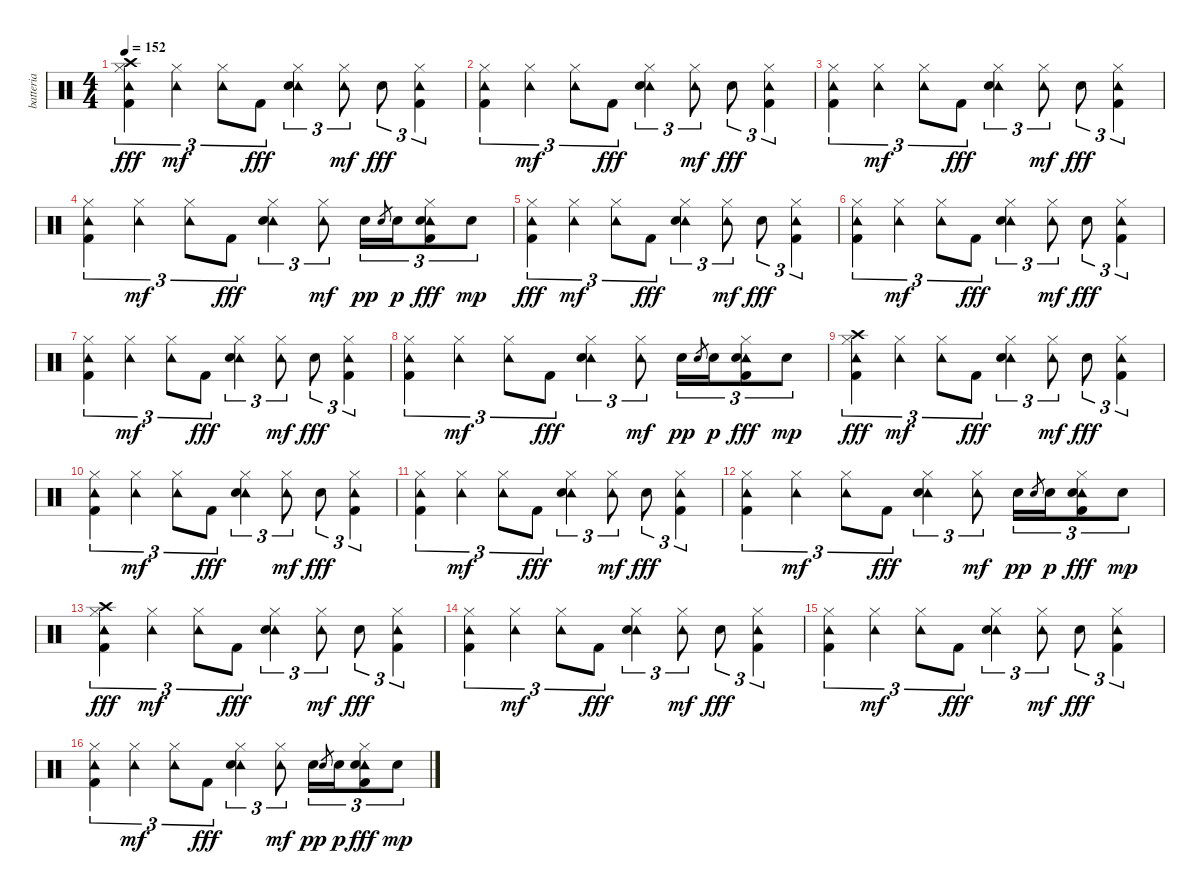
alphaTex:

\track ("batteria" "batteria") {instrument percussion}
\staff {score}
\articulation defaults
\ts (4 4)
\tempo 152
\clef neutral
\ks c
("Hi-Hat (closed)" "Tambourine (hit)" "Crash high (hit)" "Kick (hit) 2").4{tu (3 2) dy fff} ("Hi-Hat (closed)" "Tambourine (hit)").4{tu (3 2) dy mf} ("Hi-Hat (closed)" "Tambourine (hit)").8{tu (3 2)} "Kick (hit) 2".8{tu (3 2) dy fff} ("Hi-Hat (closed)" "Tambourine (hit)" "Electric Snare (hit)").4{tu (3 2)} ("Hi-Hat (closed)" "Tambourine (hit)").8{tu (3 2) dy mf} "Electric Snare (hit)".8{tu (3 2) dy fff} ("Hi-Hat (closed)" "Tambourine (hit)" "Kick (hit) 2").4{tu (3 2)} |
("Hi-Hat (closed)" "Tambourine (hit)" "Kick (hit) 2").4{tu (3 2)} ("Hi-Hat (closed)" "Tambourine (hit)").4{tu (3 2) dy mf} ("Hi-Hat (closed)" "Tambourine (hit)").8{tu (3 2)} "Kick (hit) 2".8{tu (3 2) dy fff} ("Hi-Hat (closed)" "Tambourine (hit)" "Electric Snare (hit)").4{tu (3 2)} ("Hi-Hat (closed)" "Tambourine (hit)").8{tu (3 2) dy mf} "Electric Snare (hit)".8{tu (3 2) dy fff} ("Hi-Hat (closed)" "Tambourine (hit)" "Kick (hit) 2").4{tu (3 2)} |
("Hi-Hat (closed)" "Tambourine (hit)" "Kick (hit) 2").4{tu (3 2)} ("Hi-Hat (closed)" "Tambourine (hit)").4{tu (3 2) dy mf} ("Hi-Hat (closed)" "Tambourine (hit)").8{tu (3 2)} "Kick (hit) 2".8{tu (3 2) dy fff} ("Hi-Hat (closed)" "Tambourine (hit)" "Electric Snare (hit)").4{tu (3 2)} ("Hi-Hat (closed)" "Tambourine (hit)").8{tu (3 2) dy mf} "Electric Snare (hit)".8{tu (3 2) dy fff} ("Hi-Hat (closed)" "Tambourine (hit)" "Kick (hit) 2").4{tu (3 2)} |
("Hi-Hat (closed)" "Tambourine (hit)" "Kick (hit) 2").4{tu (3 2)} ("Hi-Hat (closed)" "Tambourine (hit)").4{tu (3 2) dy mf} ("Hi-Hat (closed)" "Tambourine (hit)").8{tu (3 2)} "Kick (hit) 2".8{tu (3 2) dy fff} ("Hi-Hat (closed)" "Tambourine (hit)" "Electric Snare (hit)").4{tu (3 2)} ("Hi-Hat (closed)" "Tambourine (hit)").8{tu (3 2) dy mf} "Electric Snare (hit)".16{tu (3 2) dy pp} "Electric Snare (hit)".8{gr} "Electric Snare (hit)".16{tu (3 2) dy p} ("Hi-Hat (closed)" "Tambourine (hit)" "Electric Snare (hit)" "Kick (hit) 2").8{tu (3 2) dy fff} "Electric Snare (hit)".8{tu (3 2) dy mp} |
("Hi-Hat (closed)" "Tambourine (hit)" "Kick (hit) 2").4{tu (3 2) dy fff} ("Hi-Hat (closed)" "Tambourine (hit)").4{tu (3 2) dy mf} ("Hi-Hat (closed)" "Tambourine (hit)").8{tu (3 2)} "Kick (hit) 2".8{tu (3 2) dy fff} ("Hi-Hat (closed)" "Tambourine (hit)" "Electric Snare (hit)").4{tu (3 2)} ("Hi-Hat (closed)" "Tambourine (hit)").8{tu (3 2) dy mf} "Electric Snare (hit)".8{tu (3 2) dy fff} ("Hi-Hat (closed)" "Tambourine (hit)" "Kick (hit) 2").4{tu (3 2)} |
("Hi-Hat (closed)" "Tambourine (hit)" "Kick (hit) 2").4{tu (3 2)} ("Hi-Hat (closed)" "Tambourine (hit)").4{tu (3 2) dy mf} ("Hi-Hat (closed)" "Tambourine (hit)").8{tu (3 2)} "Kick (hit) 2".8{tu (3 2) dy fff} ("Hi-Hat (closed)" "Tambourine (hit)" "Electric Snare (hit)").4{tu (3 2)} ("Hi-Hat (closed)" "Tambourine (hit)").8{tu (3 2) dy mf} "Electric Snare (hit)".8{tu (3 2) dy fff} ("Hi-Hat (closed)" "Tambourine (hit)" "Kick (hit) 2").4{tu (3 2)} |
("Hi-Hat (closed)" "Tambourine (hit)" "Kick (hit) 2").4{tu (3 2)} ("Hi-Hat (closed)" "Tambourine (hit)").4{tu (3 2) dy mf} ("Hi-Hat (closed)" "Tambourine (hit)").8{tu (3 2)} "Kick (hit) 2".8{tu (3 2) dy fff} ("Hi-Hat (closed)" "Tambourine (hit)" "Electric Snare (hit)").4{tu (3 2)} ("Hi-Hat (closed)" "Tambourine (hit)").8{tu (3 2) dy mf} "Electric Snare (hit)".8{tu (3 2) dy fff} ("Hi-Hat (closed)" "Tambourine (hit)" "Kick (hit) 2").4{tu (3 2)} |
("Hi-Hat (closed)" "Tambourine (hit)" "Kick (hit) 2").4{tu (3 2)} ("Hi-Hat (closed)" "Tambourine (hit)").4{tu (3 2) dy mf} ("Hi-Hat (closed)" "Tambourine (hit)").8{tu (3 2)} "Kick (hit) 2".8{tu (3 2) dy fff} ("Hi-Hat (closed)" "Tambourine (hit)" "Electric Snare (hit)").4{tu (3 2)} ("Hi-Hat (closed)" "Tambourine (hit)").8{tu (3 2) dy mf} "Electric Snare (hit)".16{tu (3 2) dy pp} "Electric Snare (hit)".8{gr} "Electric Snare (hit)".16{tu (3 2) dy p} ("Hi-Hat (closed)" "Tambourine (hit)" "Electric Snare (hit)" "Kick (hit) 2").8{tu (3 2) dy fff} "Electric Snare (hit)".8{tu (3 2) dy mp} |
("Hi-Hat (closed)" "Tambourine (hit)" "Crash high (hit)" "Kick (hit) 2").4{tu (3 2) dy fff} ("Hi-Hat (closed)" "Tambourine (hit)").4{tu (3 2) dy mf} ("Hi-Hat (closed)" "Tambourine (hit)").8{tu (3 2)} "Kick (hit) 2".8{tu (3 2) dy fff} ("Hi-Hat (closed)" "Tambourine (hit)" "Electric Snare (hit)").4{tu (3 2)} ("Hi-Hat (closed)" "Tambourine (hit)").8{tu (3 2) dy mf} "Electric Snare (hit)".8{tu (3 2) dy fff} ("Hi-Hat (closed)" "Tambourine (hit)" "Kick (hit) 2").4{tu (3 2)} |
("Hi-Hat (closed)" "Tambourine (hit)" "Kick (hit) 2").4{tu (3 2)} ("Hi-Hat (closed)" "Tambourine (hit)").4{tu (3 2) dy mf} ("Hi-Hat (closed)" "Tambourine (hit)").8{tu (3 2)} "Kick (hit) 2".8{tu (3 2) dy fff} ("Hi-Hat (closed)" "Tambourine (hit)" "Electric Snare (hit)").4{tu (3 2)} ("Hi-Hat (closed)" "Tambourine (hit)").8{tu (3 2) dy mf} "Electric Snare (hit)".8{tu (3 2) dy fff} ("Hi-Hat (closed)" "Tambourine (hit)" "Kick (hit) 2").4{tu (3 2)} |
("Hi-Hat (closed)" "Tambourine (hit)" "Kick (hit) 2").4{tu (3 2)} ("Hi-Hat (closed)" "Tambourine (hit)").4{tu (3 2) dy mf} ("Hi-Hat (closed)" "Tambourine (hit)").8{tu (3 2)} "Kick (hit) 2".8{tu (3 2) dy fff} ("Hi-Hat (closed)" "Tambourine (hit)" "Electric Snare (hit)").4{tu (3 2)} ("Hi-Hat (closed)" "Tambourine (hit)").8{tu (3 2) dy mf} "Electric Snare (hit)".8{tu (3 2) dy fff} ("Hi-Hat (closed)" "Tambourine (hit)" "Kick (hit) 2").4{tu (3 2)} |
("Hi-Hat (closed)" "Tambourine (hit)" "Kick (hit) 2").4{tu (3 2)} ("Hi-Hat (closed)" "Tambourine (hit)").4{tu (3 2) dy mf} ("Hi-Hat (closed)" "Tambourine (hit)").8{tu (3 2)} "Kick (hit) 2".8{tu (3 2) dy fff} ("Hi-Hat (closed)" "Tambourine (hit)" "Electric Snare (hit)").4{tu (3 2)} ("Hi-Hat (closed)" "Tambourine (hit)").8{tu (3 2) dy mf} "Electric Snare (hit)".16{tu (3 2) dy pp} "Electric Snare (hit)".8{gr} "Electric Snare (hit)".16{tu (3 2) dy p} ("Hi-Hat (closed)" "Tambourine (hit)" "Electric Snare (hit)" "Kick (hit) 2").8{tu (3 2) dy fff} "Electric Snare (hit)".8{tu (3 2) dy mp} |
("Hi-Hat (closed)" "Tambourine (hit)" "Crash high (hit)" "Kick (hit) 2").4{tu (3 2) dy fff} ("Hi-Hat (closed)" "Tambourine (hit)").4{tu (3 2) dy mf} ("Hi-Hat (closed)" "Tambourine (hit)").8{tu (3 2)} "Kick (hit) 2".8{tu (3 2) dy fff} ("Hi-Hat (closed)" "Tambourine (hit)" "Electric Snare (hit)").4{tu (3 2)} ("Hi-Hat (closed)" "Tambourine (hit)").8{tu (3 2) dy mf} "Electric Snare (hit)".8{tu (3 2) dy fff} ("Hi-Hat (closed)" "Tambourine (hit)" "Kick (hit) 2").4{tu (3 2)} |
("Hi-Hat (closed)" "Tambourine (hit)" "Kick (hit) 2").4{tu (3 2)} ("Hi-Hat (closed)" "Tambourine (hit)").4{tu (3 2) dy mf} ("Hi-Hat (closed)" "Tambourine (hit)").8{tu (3 2)} "Kick (hit) 2".8{tu (3 2) dy fff} ("Hi-Hat (closed)" "Tambourine (hit)" "Electric Snare (hit)").4{tu (3 2)} ("Hi-Hat (closed)" "Tambourine (hit)").8{tu (3 2) dy mf} "Electric Snare (hit)".8{tu (3 2) dy fff} ("Hi-Hat (closed)" "Tambourine (hit)" "Kick (hit) 2").4{tu (3 2)} |
("Hi-Hat (closed)" "Tambourine (hit)" "Kick (hit) 2").4{tu (3 2)} ("Hi-Hat (closed)" "Tambourine (hit)").4{tu (3 2) dy mf} ("Hi-Hat (closed)" "Tambourine (hit)").8{tu (3 2)} "Kick (hit) 2".8{tu (3 2) dy fff} ("Hi-Hat (closed)" "Tambourine (hit)" "Electric Snare (hit)").4{tu (3 2)} ("Hi-Hat (closed)" "Tambourine (hit)").8{tu (3 2) dy mf} "Electric Snare (hit)".8{tu (3 2) dy fff} ("Hi-Hat (closed)" "Tambourine (hit)" "Kick (hit) 2").4{tu (3 2)} |
("Hi-Hat (closed)" "Tambourine (hit)" "Kick (hit) 2").4{tu (3 2)} ("Hi-Hat (closed)" "Tambourine (hit)").4{tu (3 2) dy mf} ("Hi-Hat (closed)" "Tambourine (hit)").8{tu (3 2)} "Kick (hit) 2".8{tu (3 2) dy fff} ("Hi-Hat (closed)" "Tambourine (hit)" "Electric Snare (hit)").4{tu (3 2)} ("Hi-Hat (closed)" "Tambourine (hit)").8{tu (3 2) dy mf} "Electric Snare (hit)".16{tu (3 2) dy pp} "Electric Snare (hit)".8{gr} "Electric Snare (hit)".16{tu (3 2) dy p} ("Hi-Hat (closed)" "Tambourine (hit)" "Electric Snare (hit)" "Kick (hit) 2").8{tu (3 2) dy fff} "Electric Snare (hit)".8{tu (3 2) dy mp}
